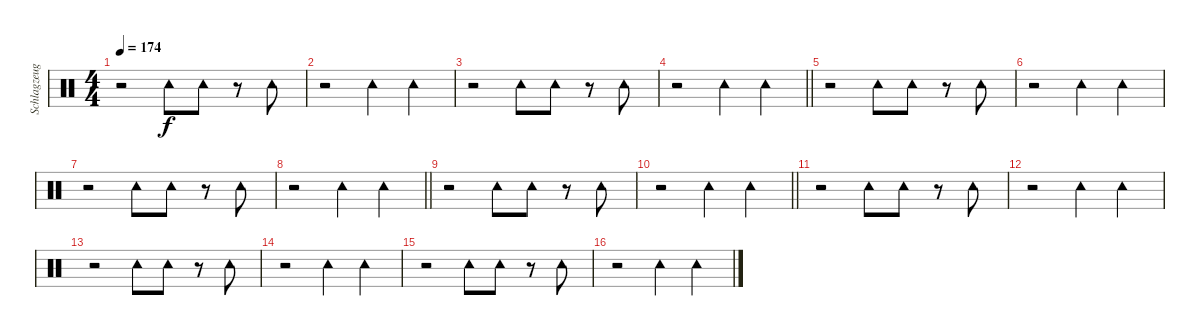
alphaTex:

\track ("Schlagzeug" "Schlagzeug") {instrument percussion}
\staff {score}
\articulation defaults
\ts (4 4)
\tempo 174
\clef neutral
\ks c
r.2{dy f} "Tambourine (hit)".8 "Tambourine (hit)".8 r.8 "Tambourine (hit)".8 |
r.2 "Tambourine (hit)".4 "Tambourine (hit)".4 |
r.2 "Tambourine (hit)".8 "Tambourine (hit)".8 r.8 "Tambourine (hit)".8 |
\barLineRight lightlight
r.2 "Tambourine (hit)".4 "Tambourine (hit)".4 |
r.2 "Tambourine (hit)".8 "Tambourine (hit)".8 r.8 "Tambourine (hit)".8 |
r.2 "Tambourine (hit)".4 "Tambourine (hit)".4 |
r.2 "Tambourine (hit)".8 "Tambourine (hit)".8 r.8 "Tambourine (hit)".8 |
\barLineRight lightlight
r.2 "Tambourine (hit)".4 "Tambourine (hit)".4 |
r.2 "Tambourine (hit)".8 "Tambourine (hit)".8 r.8 "Tambourine (hit)".8 |
\barLineRight lightlight
r.2 "Tambourine (hit)".4 "Tambourine (hit)".4 |
r.2 "Tambourine (hit)".8 "Tambourine (hit)".8 r.8 "Tambourine (hit)".8 |
r.2 "Tambourine (hit)".4 "Tambourine (hit)".4 |
r.2 "Tambourine (hit)".8 "Tambourine (hit)".8 r.8 "Tambourine (hit)".8 |
r.2 "Tambourine (hit)".4 "Tambourine (hit)".4 |
r.2 "Tambourine (hit)".8 "Tambourine (hit)".8 r.8 "Tambourine (hit)".8 |
r.2 "Tambourine (hit)".4 "Tambourine (hit)".4
